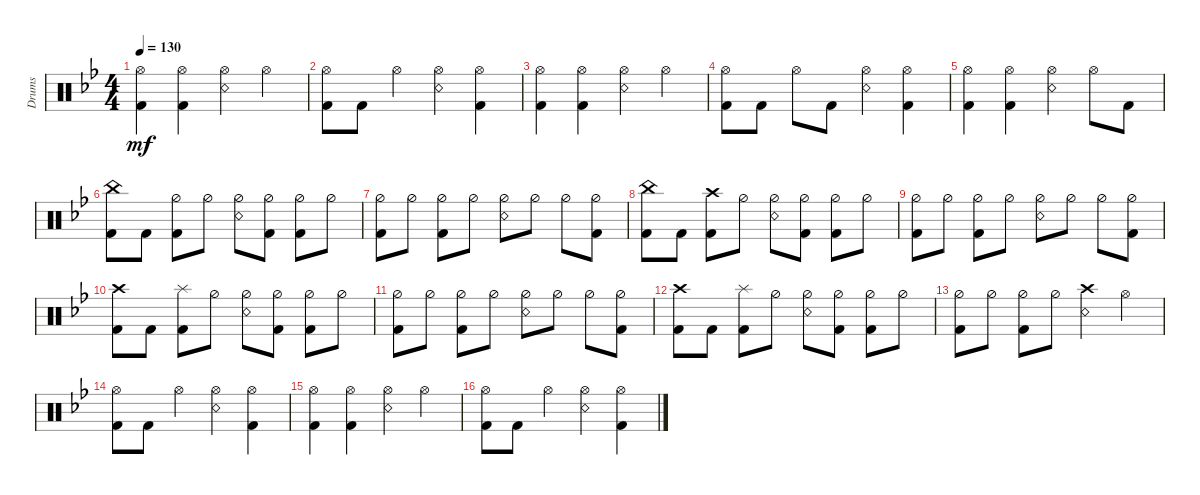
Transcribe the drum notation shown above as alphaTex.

\bracketExtendMode groupsimilarinstruments
\otherSystemsTrackNameOrientation horizontal
\track ("Schlagzeug" "Drums") {instrument percussion}
\staff {score}
\articulation defaults
\ts (4 4)
\tempo 130
\clef neutral
\ks bb
("Kick (hit) 2"{acc forcenatural} "Hi-Hat (open)"{acc forcenatural}).4{dy mf beam Down} ("Kick (hit) 2"{acc forcenatural} "Hi-Hat (open)"{acc forcenatural}).4{beam Down} ("Snare (rim shot)"{acc forcenatural} "Hi-Hat (open)"{acc forcenatural}).4{beam Down} "Hi-Hat (open)"{acc forcenatural}.4{beam Down} |
("Kick (hit) 2"{acc forcenatural} "Hi-Hat (open)"{acc forcenatural}).8{beam Down} "Kick (hit) 2"{acc forcenatural}.8{beam Down} "Hi-Hat (open)"{acc forcenatural}.4{beam Down} ("Snare (rim shot)"{acc forcenatural} "Hi-Hat (open)"{acc forcenatural}).4{beam Down} ("Kick (hit) 2"{acc forcenatural} "Hi-Hat (open)"{acc forcenatural}).4{beam Down} |
("Kick (hit) 2"{acc forcenatural} "Hi-Hat (open)"{acc forcenatural}).4{beam Down} ("Kick (hit) 2"{acc forcenatural} "Hi-Hat (open)"{acc forcenatural}).4{beam Down} ("Snare (rim shot)"{acc forcenatural} "Hi-Hat (open)"{acc forcenatural}).4{beam Down} "Hi-Hat (open)"{acc forcenatural}.4{beam Down} |
("Kick (hit) 2"{acc forcenatural} "Hi-Hat (open)"{acc forcenatural}).8{beam Down} "Kick (hit) 2"{acc forcenatural}.8{beam Down} "Hi-Hat (open)"{acc forcenatural}.8{beam Down} "Kick (hit) 2"{acc forcenatural}.8{beam Down} ("Snare (rim shot)"{acc forcenatural} "Hi-Hat (open)"{acc forcenatural}).4{beam Down} ("Hi-Hat (open)"{acc forcenatural} "Kick (hit) 2"{acc forcenatural}).4{beam Down} |
("Kick (hit) 2"{acc forcenatural} "Hi-Hat (open)"{acc forcenatural}).4{beam Down} ("Kick (hit) 2"{acc forcenatural} "Hi-Hat (open)"{acc forcenatural}).4{beam Down} ("Snare (rim shot)"{acc forcenatural} "Hi-Hat (open)"{acc forcenatural}).4{beam Down} "Hi-Hat (open)"{acc forcenatural}.8{beam Down} "Kick (hit) 2"{acc forcenatural}.8{beam Down} |
("Kick (hit) 2"{acc forcenatural} "China (hit)"{acc forcenatural}).8{beam Down} "Kick (hit) 2"{acc forcenatural}.8{beam Down} ("Kick (hit) 2"{acc forcenatural} "Hi-Hat (half)"{acc forcenatural}).8{beam Down} "Hi-Hat (half)"{acc forcenatural}.8{beam Down} ("Snare (rim shot)"{acc forcenatural} "Hi-Hat (half)"{acc forcenatural}).8{beam Down} ("Kick (hit) 2"{acc forcenatural} "Hi-Hat (half)"{acc forcenatural}).8{beam Down} ("Kick (hit) 2"{acc forcenatural} "Hi-Hat (half)"{acc forcenatural}).8{beam Down} "Hi-Hat (half)"{acc forcenatural}.8{beam Down} |
("Kick (hit) 2"{acc forcenatural} "Hi-Hat (half)"{acc forcenatural}).8{beam Down} "Hi-Hat (half)"{acc forcenatural}.8{beam Down} ("Kick (hit) 2"{acc forcenatural} "Hi-Hat (half)"{acc forcenatural}).8{beam Down} "Hi-Hat (half)"{acc forcenatural}.8{beam Down} ("Snare (rim shot)"{acc forcenatural} "Hi-Hat (half)"{acc forcenatural}).8{beam Down} "Hi-Hat (half)"{acc forcenatural}.8{beam Down} "Hi-Hat (half)"{acc forcenatural}.8{beam Down} ("Kick (hit) 2"{acc forcenatural} "Hi-Hat (half)"{acc forcenatural}).8{beam Down} |
("Kick (hit) 2"{acc forcenatural} "China (hit)"{acc forcenatural}).8{beam Down} "Kick (hit) 2"{acc forcenatural}.8{beam Down} ("Kick (hit) 2"{acc forcenatural} "Crash high (hit)"{acc forcenatural}).8{beam Down} "Hi-Hat (half)"{acc forcenatural}.8{beam Down} ("Snare (rim shot)"{acc forcenatural} "Hi-Hat (half)"{acc forcenatural}).8{beam Down} ("Kick (hit) 2"{acc forcenatural} "Hi-Hat (half)"{acc forcenatural}).8{beam Down} ("Kick (hit) 2"{acc forcenatural} "Hi-Hat (half)"{acc forcenatural}).8{beam Down} "Hi-Hat (half)"{acc forcenatural}.8{beam Down} |
("Kick (hit) 2"{acc forcenatural} "Hi-Hat (half)"{acc forcenatural}).8{beam Down} "Hi-Hat (half)"{acc forcenatural}.8{beam Down} ("Kick (hit) 2"{acc forcenatural} "Hi-Hat (half)"{acc forcenatural}).8{beam Down} "Hi-Hat (half)"{acc forcenatural}.8{beam Down} ("Snare (rim shot)"{acc forcenatural} "Hi-Hat (half)"{acc forcenatural}).8{beam Down} "Hi-Hat (half)"{acc forcenatural}.8{beam Down} "Hi-Hat (half)"{acc forcenatural}.8{beam Down} ("Kick (hit) 2"{acc forcenatural} "Hi-Hat (half)"{acc forcenatural}).8{beam Down} |
("Kick (hit) 2"{acc forcenatural} "Crash high (hit)"{acc forcenatural}).8{beam Down} "Kick (hit) 2"{acc forcenatural}.8{beam Down} ("Kick (hit) 2"{acc forcenatural} "Splash (hit)"{acc forcenatural}).8{beam Down} "Hi-Hat (half)"{acc forcenatural}.8{beam Down} ("Snare (rim shot)"{acc forcenatural} "Hi-Hat (half)"{acc forcenatural}).8{beam Down} ("Kick (hit) 2"{acc forcenatural} "Hi-Hat (half)"{acc forcenatural}).8{beam Down} ("Kick (hit) 2"{acc forcenatural} "Hi-Hat (half)"{acc forcenatural}).8{beam Down} "Hi-Hat (half)"{acc forcenatural}.8{beam Down} |
("Kick (hit) 2"{acc forcenatural} "Hi-Hat (half)"{acc forcenatural}).8{beam Down} "Hi-Hat (half)"{acc forcenatural}.8{beam Down} ("Kick (hit) 2"{acc forcenatural} "Hi-Hat (half)"{acc forcenatural}).8{beam Down} "Hi-Hat (half)"{acc forcenatural}.8{beam Down} ("Snare (rim shot)"{acc forcenatural} "Hi-Hat (half)"{acc forcenatural}).8{beam Down} "Hi-Hat (half)"{acc forcenatural}.8{beam Down} "Hi-Hat (half)"{acc forcenatural}.8{beam Down} ("Kick (hit) 2"{acc forcenatural} "Hi-Hat (half)"{acc forcenatural}).8{beam Down} |
("Kick (hit) 2"{acc forcenatural} "Crash high (hit)"{acc forcenatural}).8{beam Down} "Kick (hit) 2"{acc forcenatural}.8{beam Down} ("Kick (hit) 2"{acc forcenatural} "Splash (hit)"{acc forcenatural}).8{beam Down} "Hi-Hat (half)"{acc forcenatural}.8{beam Down} ("Snare (rim shot)"{acc forcenatural} "Hi-Hat (half)"{acc forcenatural}).8{beam Down} ("Kick (hit) 2"{acc forcenatural} "Hi-Hat (half)"{acc forcenatural}).8{beam Down} ("Kick (hit) 2"{acc forcenatural} "Hi-Hat (half)"{acc forcenatural}).8{beam Down} "Hi-Hat (half)"{acc forcenatural}.8{beam Down} |
("Kick (hit) 2"{acc forcenatural} "Hi-Hat (half)"{acc forcenatural}).8{beam Down} "Hi-Hat (half)"{acc forcenatural}.8{beam Down} ("Kick (hit) 2"{acc forcenatural} "Hi-Hat (half)"{acc forcenatural}).8{beam Down} "Hi-Hat (half)"{acc forcenatural}.8{beam Down} ("Snare (rim shot)"{acc forcenatural} "Crash high (hit)"{acc forcenatural}).4{beam Down} "Hi-Hat (open)"{acc forcenatural}.4{beam Down} |
("Kick (hit) 2"{acc forcenatural} "Hi-Hat (open)"{acc forcenatural}).8{beam Down} "Kick (hit) 2"{acc forcenatural}.8{beam Down} "Hi-Hat (open)"{acc forcenatural}.4{beam Down} ("Snare (rim shot)"{acc forcenatural} "Hi-Hat (open)"{acc forcenatural}).4{beam Down} ("Kick (hit) 2"{acc forcenatural} "Hi-Hat (open)"{acc forcenatural}).4{beam Down} |
("Kick (hit) 2"{acc forcenatural} "Hi-Hat (open)"{acc forcenatural}).4{beam Down} ("Kick (hit) 2"{acc forcenatural} "Hi-Hat (open)"{acc forcenatural}).4{beam Down} ("Snare (rim shot)"{acc forcenatural} "Hi-Hat (open)"{acc forcenatural}).4{beam Down} "Hi-Hat (open)"{acc forcenatural}.4{beam Down} |
("Kick (hit) 2"{acc forcenatural} "Hi-Hat (open)"{acc forcenatural}).8{beam Down} "Kick (hit) 2"{acc forcenatural}.8{beam Down} "Hi-Hat (open)"{acc forcenatural}.4{beam Down} ("Snare (rim shot)"{acc forcenatural} "Hi-Hat (open)"{acc forcenatural}).4{beam Down} ("Kick (hit) 2"{acc forcenatural} "Hi-Hat (open)"{acc forcenatural}).4{beam Down}
